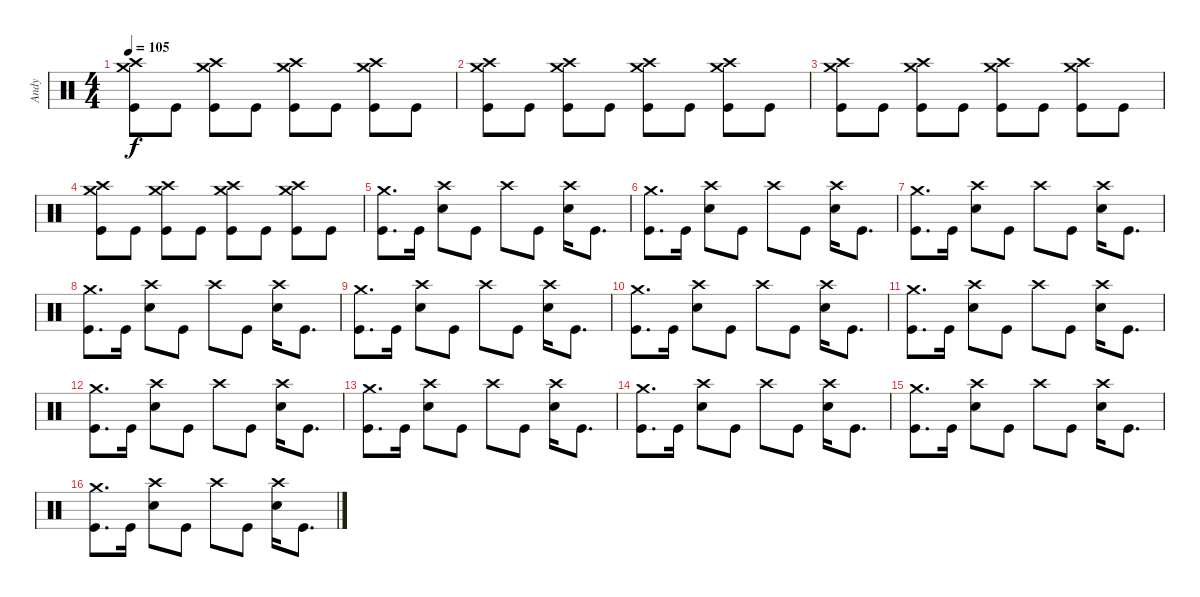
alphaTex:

\track ("Andy" "Andy") {instrument percussion}
\staff {score}
\articulation defaults
\ts (4 4)
\tempo 105
\clef neutral
\ks c
("Kick (hit)" "Crash high (hit)" "Crash medium (hit)").8{dy f} "Kick (hit)".8 ("Kick (hit)" "Crash high (hit)" "Crash medium (hit)").8 "Kick (hit)".8 ("Kick (hit)" "Crash high (hit)" "Crash medium (hit)").8 "Kick (hit)".8 ("Kick (hit)" "Crash high (hit)" "Crash medium (hit)").8 "Kick (hit)".8 |
("Kick (hit)" "Crash high (hit)" "Crash medium (hit)").8 "Kick (hit)".8 ("Kick (hit)" "Crash high (hit)" "Crash medium (hit)").8 "Kick (hit)".8 ("Kick (hit)" "Crash high (hit)" "Crash medium (hit)").8 "Kick (hit)".8 ("Kick (hit)" "Crash high (hit)" "Crash medium (hit)").8 "Kick (hit)".8 |
("Kick (hit)" "Crash high (hit)" "Crash medium (hit)").8 "Kick (hit)".8 ("Kick (hit)" "Crash high (hit)" "Crash medium (hit)").8 "Kick (hit)".8 ("Kick (hit)" "Crash high (hit)" "Crash medium (hit)").8 "Kick (hit)".8 ("Kick (hit)" "Crash high (hit)" "Crash medium (hit)").8 "Kick (hit)".8 |
("Kick (hit)" "Crash high (hit)" "Crash medium (hit)").8 "Kick (hit)".8 ("Kick (hit)" "Crash high (hit)" "Crash medium (hit)").8 "Kick (hit)".8 ("Kick (hit)" "Crash high (hit)" "Crash medium (hit)").8 "Kick (hit)".8 ("Kick (hit)" "Crash high (hit)" "Crash medium (hit)").8 "Kick (hit)".8 |
("Kick (hit)" "Crash medium (hit)").8{d} "Kick (hit)".16 ("Snare (hit) 2" "Crash high (hit)").8 "Kick (hit)".8 "Crash high (hit)".8 "Kick (hit)".8 ("Snare (hit) 2" "Crash high (hit)").16 "Kick (hit)".8{d} |
("Kick (hit)" "Crash medium (hit)").8{d} "Kick (hit)".16 ("Snare (hit) 2" "Crash high (hit)").8 "Kick (hit)".8 "Crash high (hit)".8 "Kick (hit)".8 ("Snare (hit) 2" "Crash high (hit)").16 "Kick (hit)".8{d} |
("Kick (hit)" "Crash medium (hit)").8{d} "Kick (hit)".16 ("Snare (hit) 2" "Crash high (hit)").8 "Kick (hit)".8 "Crash high (hit)".8 "Kick (hit)".8 ("Snare (hit) 2" "Crash high (hit)").16 "Kick (hit)".8{d} |
("Kick (hit)" "Crash medium (hit)").8{d} "Kick (hit)".16 ("Snare (hit) 2" "Crash high (hit)").8 "Kick (hit)".8 "Crash high (hit)".8 "Kick (hit)".8 ("Snare (hit) 2" "Crash high (hit)").16 "Kick (hit)".8{d} |
("Kick (hit)" "Crash medium (hit)").8{d} "Kick (hit)".16 ("Snare (hit) 2" "Crash high (hit)").8 "Kick (hit)".8 "Crash high (hit)".8 "Kick (hit)".8 ("Snare (hit) 2" "Crash high (hit)").16 "Kick (hit)".8{d} |
("Kick (hit)" "Crash medium (hit)").8{d} "Kick (hit)".16 ("Snare (hit) 2" "Crash high (hit)").8 "Kick (hit)".8 "Crash high (hit)".8 "Kick (hit)".8 ("Snare (hit) 2" "Crash high (hit)").16 "Kick (hit)".8{d} |
("Kick (hit)" "Crash medium (hit)").8{d} "Kick (hit)".16 ("Snare (hit) 2" "Crash high (hit)").8 "Kick (hit)".8 "Crash high (hit)".8 "Kick (hit)".8 ("Snare (hit) 2" "Crash high (hit)").16 "Kick (hit)".8{d} |
("Kick (hit)" "Crash medium (hit)").8{d} "Kick (hit)".16 ("Snare (hit) 2" "Crash high (hit)").8 "Kick (hit)".8 "Crash high (hit)".8 "Kick (hit)".8 ("Snare (hit) 2" "Crash high (hit)").16 "Kick (hit)".8{d} |
("Kick (hit)" "Crash medium (hit)").8{d} "Kick (hit)".16 ("Snare (hit) 2" "Crash high (hit)").8 "Kick (hit)".8 "Crash high (hit)".8 "Kick (hit)".8 ("Snare (hit) 2" "Crash high (hit)").16 "Kick (hit)".8{d} |
("Kick (hit)" "Crash medium (hit)").8{d} "Kick (hit)".16 ("Snare (hit) 2" "Crash high (hit)").8 "Kick (hit)".8 "Crash high (hit)".8 "Kick (hit)".8 ("Snare (hit) 2" "Crash high (hit)").16 "Kick (hit)".8{d} |
("Kick (hit)" "Crash medium (hit)").8{d} "Kick (hit)".16 ("Snare (hit) 2" "Crash high (hit)").8 "Kick (hit)".8 "Crash high (hit)".8 "Kick (hit)".8 ("Snare (hit) 2" "Crash high (hit)").16 "Kick (hit)".8{d} |
("Kick (hit)" "Crash medium (hit)").8{d} "Kick (hit)".16 ("Snare (hit) 2" "Crash high (hit)").8 "Kick (hit)".8 "Crash high (hit)".8 "Kick (hit)".8 ("Snare (hit) 2" "Crash high (hit)").16 "Kick (hit)".8{d}
